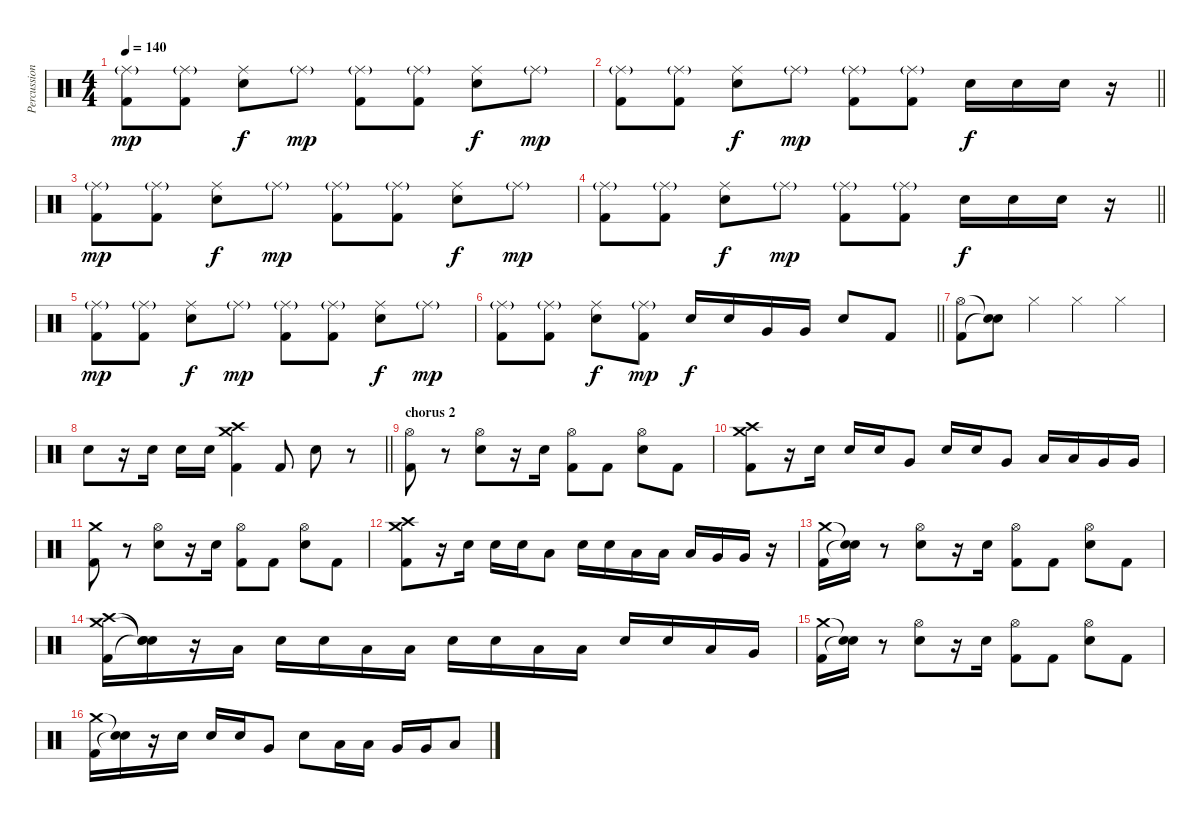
\track ("Percussion" "Percussion") {instrument percussion}
\staff {score}
\articulation defaults
\ts (4 4)
\tempo 140
\clef neutral
\ks c
("Kick (hit) 2" "Ride (middle)"{g}).8{dy mp} ("Kick (hit) 2" "Ride (middle)"{g}).8 ("Electric Snare (hit)" "Ride (middle)").8{dy f} "Ride (middle)"{g}.8{dy mp} ("Kick (hit) 2" "Ride (middle)"{g}).8 ("Kick (hit) 2" "Ride (middle)"{g}).8 ("Electric Snare (hit)" "Ride (middle)").8{dy f} "Ride (middle)"{g}.8{dy mp} |
\barLineRight lightlight
("Kick (hit) 2" "Ride (middle)"{g}).8 ("Kick (hit) 2" "Ride (middle)"{g}).8 ("Electric Snare (hit)" "Ride (middle)").8{dy f} "Ride (middle)"{g}.8{dy mp} ("Kick (hit) 2" "Ride (middle)"{g}).8 ("Kick (hit) 2" "Ride (middle)"{g}).8 "Electric Snare (hit)".16{dy f} "Electric Snare (hit)".16 "Electric Snare (hit)".16 r.16 |
("Kick (hit) 2" "Ride (middle)"{g}).8{dy mp} ("Kick (hit) 2" "Ride (middle)"{g}).8 ("Electric Snare (hit)" "Ride (middle)").8{dy f} "Ride (middle)"{g}.8{dy mp} ("Kick (hit) 2" "Ride (middle)"{g}).8 ("Kick (hit) 2" "Ride (middle)"{g}).8 ("Electric Snare (hit)" "Ride (middle)").8{dy f} "Ride (middle)"{g}.8{dy mp} |
\barLineRight lightlight
("Kick (hit) 2" "Ride (middle)"{g}).8 ("Kick (hit) 2" "Ride (middle)"{g}).8 ("Electric Snare (hit)" "Ride (middle)").8{dy f} "Ride (middle)"{g}.8{dy mp} ("Kick (hit) 2" "Ride (middle)"{g}).8 ("Kick (hit) 2" "Ride (middle)"{g}).8 "Electric Snare (hit)".16{dy f} "Electric Snare (hit)".16 "Electric Snare (hit)".16 r.16 |
("Kick (hit) 2" "Ride (middle)"{g}).8{dy mp} ("Kick (hit) 2" "Ride (middle)"{g}).8 ("Electric Snare (hit)" "Ride (middle)").8{dy f} "Ride (middle)"{g}.8{dy mp} ("Kick (hit) 2" "Ride (middle)"{g}).8 ("Kick (hit) 2" "Ride (middle)"{g}).8 ("Electric Snare (hit)" "Ride (middle)").8{dy f} "Ride (middle)"{g}.8{dy mp} |
\barLineRight lightlight
("Kick (hit) 2" "Ride (middle)"{g}).8 ("Kick (hit) 2" "Ride (middle)"{g}).8 ("Electric Snare (hit)" "Ride (middle)").8{dy f} ("Kick (hit) 2" "Ride (middle)"{g}).8{dy mp} "Electric Snare (hit)".16{dy f} "Electric Snare (hit)".16 "Very Low Tom (hit)".16 "Very Low Tom (hit)".16 "Electric Snare (hit)".8 "Kick (hit) 2".8 |
("Kick (hit) 2" "Hi-Hat (open)").8 ("Snare (hit)"{t} "Snare (hit)"{t}).8 "Hi-Hat (closed)".4 "Hi-Hat (closed)".4 "Hi-Hat (closed)".4 |
\barLineRight lightlight "Electric Snare (hit)".8
r.16 "Electric Snare (hit)".16 "Electric Snare (hit)".16 "Electric Snare (hit)".16 ("Crash medium (hit)" "Crash high (hit)" "Kick (hit) 2").4 "Kick (hit) 2".8 "Electric Snare (hit)".8 r.8 |
\section ("" "chorus 2")
("Kick (hit) 2" "Hi-Hat (open)").8 r.8 ("Electric Snare (hit)" "Hi-Hat (open)").8 r.16 "Electric Snare (hit)".16 ("Kick (hit) 2" "Hi-Hat (open)").8 "Kick (hit) 2".8 ("Electric Snare (hit)" "Hi-Hat (open)").8 "Kick (hit) 2".8 |
("Crash medium (hit)" "Crash high (hit)" "Kick (hit) 2").8 r.16 "Electric Snare (hit)".16 "Electric Snare (hit)".16 "Electric Snare (hit)".16 "Very Low Tom (hit)".8 "Electric Snare (hit)".16 "Electric Snare (hit)".16 "Very Low Tom (hit)".8 "Low Tom (hit)".16 "Low Tom (hit)".16 "Very Low Tom (hit)".16 "Very Low Tom (hit)".16 |
("Crash medium (hit)" "Kick (hit) 2").8 r.8 ("Electric Snare (hit)" "Hi-Hat (open)").8 r.16 "Electric Snare (hit)".16 ("Kick (hit) 2" "Hi-Hat (open)").8 "Kick (hit) 2".8 ("Electric Snare (hit)" "Hi-Hat (open)").8 "Kick (hit) 2".8 |
("Crash medium (hit)" "Crash high (hit)" "Kick (hit) 2").8 r.16 "Electric Snare (hit)".16 "Electric Snare (hit)".16 "Electric Snare (hit)".16 "Low Tom (hit)".8 "Electric Snare (hit)".16 "Electric Snare (hit)".16 "Low Tom (hit)".16 "Low Tom (hit)".16 "Low Tom (hit)".16 "Very Low Tom (hit)".16 "Very Low Tom (hit)".16 r.16 |
("Crash medium (hit)" "Kick (hit) 2").16 ("Snare (hit)"{t} "Snare (hit)"{t}).16 r.8 ("Electric Snare (hit)" "Hi-Hat (open)").8 r.16 "Electric Snare (hit)".16 ("Kick (hit) 2" "Hi-Hat (open)").8 "Kick (hit) 2".8 ("Electric Snare (hit)" "Hi-Hat (open)").8 "Kick (hit) 2".8 |
("Crash medium (hit)" "Crash high (hit)" "Kick (hit) 2").16 ("Snare (hit)"{t} "Snare (hit)"{t} "Snare (hit)"{t}).16 r.16 "Low Floor Tom (hit)".16 "Electric Snare (hit)".16 "Electric Snare (hit)".16 "Low Tom (hit)".16 "Low Floor Tom (hit)".16 "Electric Snare (hit)".16 "Electric Snare (hit)".16 "Low Tom (hit)".16 "Low Floor Tom (hit)".16 "Electric Snare (hit)".16 "Electric Snare (hit)".16 "Low Tom (hit)".16 "Very Low Tom (hit)".16 |
("Crash medium (hit)" "Kick (hit) 2").16 ("Snare (hit)"{t} "Snare (hit)"{t}).16 r.8 ("Electric Snare (hit)" "Hi-Hat (open)").8 r.16 "Electric Snare (hit)".16 ("Kick (hit) 2" "Hi-Hat (open)").8 "Kick (hit) 2".8 ("Electric Snare (hit)" "Hi-Hat (open)").8 "Kick (hit) 2".8 |
("Crash medium (hit)" "Kick (hit) 2").16 ("Snare (hit)"{t} "Snare (hit)"{t}).16 r.16 "Electric Snare (hit)".16 "Electric Snare (hit)".16 "Electric Snare (hit)".16 "Very Low Tom (hit)".8 "Electric Snare (hit)".8 "Low Tom (hit)".16 "Low Tom (hit)".16 "Very Low Tom (hit)".16 "Very Low Tom (hit)".16 "Low Floor Tom (hit)".8
